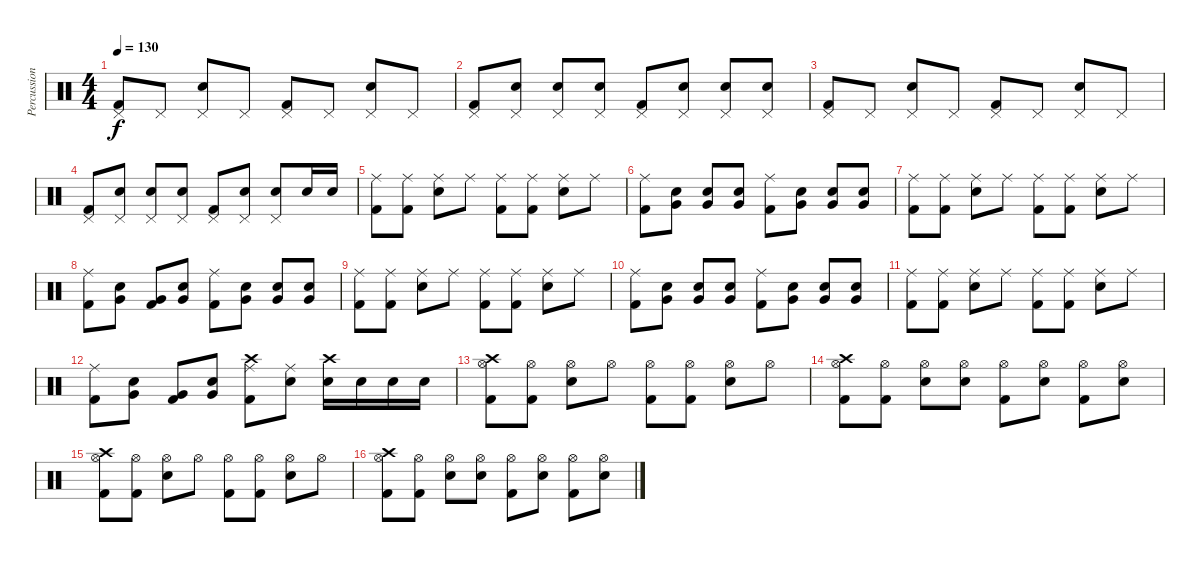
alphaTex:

\track ("Percussion" "Percussion") {instrument percussion}
\staff {score}
\articulation defaults
\ts (4 4)
\tempo 130
\clef neutral
\ks c
("Pedal Hi-Hat (hit)" "Kick (hit) 2").8{dy f} "Pedal Hi-Hat (hit)".8 ("Pedal Hi-Hat (hit)" "Snare (hit) 2").8 "Pedal Hi-Hat (hit)".8 ("Pedal Hi-Hat (hit)" "Kick (hit) 2").8 "Pedal Hi-Hat (hit)".8 ("Pedal Hi-Hat (hit)" "Snare (hit) 2").8 "Pedal Hi-Hat (hit)".8 |
("Pedal Hi-Hat (hit)" "Kick (hit) 2").8 ("Pedal Hi-Hat (hit)" "Snare (hit) 2").8 ("Pedal Hi-Hat (hit)" "Snare (hit) 2").8 ("Pedal Hi-Hat (hit)" "Snare (hit) 2").8 ("Pedal Hi-Hat (hit)" "Kick (hit) 2").8 ("Pedal Hi-Hat (hit)" "Snare (hit) 2").8 ("Pedal Hi-Hat (hit)" "Snare (hit) 2").8 ("Pedal Hi-Hat (hit)" "Snare (hit) 2").8 |
("Pedal Hi-Hat (hit)" "Kick (hit) 2").8 "Pedal Hi-Hat (hit)".8 ("Pedal Hi-Hat (hit)" "Snare (hit) 2").8 "Pedal Hi-Hat (hit)".8 ("Pedal Hi-Hat (hit)" "Kick (hit) 2").8 "Pedal Hi-Hat (hit)".8 ("Pedal Hi-Hat (hit)" "Snare (hit) 2").8 "Pedal Hi-Hat (hit)".8 |
("Pedal Hi-Hat (hit)" "Kick (hit) 2").8 ("Pedal Hi-Hat (hit)" "Snare (hit) 2").8 ("Pedal Hi-Hat (hit)" "Snare (hit) 2").8 ("Pedal Hi-Hat (hit)" "Snare (hit) 2").8 ("Pedal Hi-Hat (hit)" "Kick (hit) 2").8 ("Pedal Hi-Hat (hit)" "Snare (hit) 2").8 ("Pedal Hi-Hat (hit)" "Snare (hit) 2").8 "Snare (hit) 2".16 "Snare (hit) 2".16 |
("Ride (middle)" "Kick (hit) 2").8 ("Ride (middle)" "Kick (hit) 2").8 ("Ride (middle)" "Snare (hit) 2").8 "Ride (middle)".8 ("Ride (middle)" "Kick (hit) 2").8 ("Ride (middle)" "Kick (hit) 2").8 ("Ride (middle)" "Snare (hit) 2").8 "Ride (middle)".8 |
("Ride (middle)" "Kick (hit) 2").8 ("Very Low Tom (hit)" "Snare (hit) 2").8 ("Very Low Tom (hit)" "Snare (hit) 2").8 ("Very Low Tom (hit)" "Snare (hit) 2").8 ("Ride (middle)" "Kick (hit) 2").8 ("Very Low Tom (hit)" "Snare (hit) 2").8 ("Very Low Tom (hit)" "Snare (hit) 2").8 ("Very Low Tom (hit)" "Snare (hit) 2").8 |
("Ride (middle)" "Kick (hit) 2").8 ("Ride (middle)" "Kick (hit) 2").8 ("Ride (middle)" "Snare (hit) 2").8 "Ride (middle)".8 ("Ride (middle)" "Kick (hit) 2").8 ("Ride (middle)" "Kick (hit) 2").8 ("Ride (middle)" "Snare (hit) 2").8 "Ride (middle)".8 |
("Ride (middle)" "Kick (hit) 2").8 ("Very Low Tom (hit)" "Snare (hit) 2").8 ("Very Low Tom (hit)" "Kick (hit) 2").8 ("Very Low Tom (hit)" "Snare (hit) 2").8 ("Ride (middle)" "Kick (hit) 2").8 ("Very Low Tom (hit)" "Snare (hit) 2").8 ("Very Low Tom (hit)" "Snare (hit) 2").8 ("Very Low Tom (hit)" "Snare (hit) 2").8 |
("Ride (middle)" "Kick (hit) 2").8 ("Ride (middle)" "Kick (hit) 2").8 ("Ride (middle)" "Snare (hit) 2").8 "Ride (middle)".8 ("Ride (middle)" "Kick (hit) 2").8 ("Ride (middle)" "Kick (hit) 2").8 ("Ride (middle)" "Snare (hit) 2").8 "Ride (middle)".8 |
("Ride (middle)" "Kick (hit) 2").8 ("Very Low Tom (hit)" "Snare (hit) 2").8 ("Very Low Tom (hit)" "Snare (hit) 2").8 ("Very Low Tom (hit)" "Snare (hit) 2").8 ("Ride (middle)" "Kick (hit) 2").8 ("Very Low Tom (hit)" "Snare (hit) 2").8 ("Very Low Tom (hit)" "Snare (hit) 2").8 ("Very Low Tom (hit)" "Snare (hit) 2").8 |
("Ride (middle)" "Kick (hit) 2").8 ("Ride (middle)" "Kick (hit) 2").8 ("Ride (middle)" "Snare (hit) 2").8 "Ride (middle)".8 ("Ride (middle)" "Kick (hit) 2").8 ("Ride (middle)" "Kick (hit) 2").8 ("Ride (middle)" "Snare (hit) 2").8 "Ride (middle)".8 |
("Ride (middle)" "Kick (hit) 2").8 ("Very Low Tom (hit)" "Snare (hit) 2").8 ("Very Low Tom (hit)" "Kick (hit) 2").8 ("Very Low Tom (hit)" "Snare (hit) 2").8 ("Crash high (hit)" "Ride (middle)" "Kick (hit) 2").8 ("Ride (middle)" "Snare (hit) 2").8 ("Crash high (hit)" "Snare (hit) 2").16 "Snare (hit) 2".16 "Snare (hit) 2".16 "Snare (hit) 2".16 |
("Crash high (hit)" "Hi-Hat (open)" "Kick (hit) 2").8 ("Hi-Hat (open)" "Kick (hit) 2").8 ("Hi-Hat (open)" "Snare (hit) 2").8 "Hi-Hat (open)".8 ("Hi-Hat (open)" "Kick (hit) 2").8 ("Hi-Hat (open)" "Kick (hit) 2").8 ("Hi-Hat (open)" "Snare (hit) 2").8 "Hi-Hat (open)".8 |
("Crash high (hit)" "Hi-Hat (open)" "Kick (hit) 2").8 ("Hi-Hat (open)" "Kick (hit) 2").8 ("Hi-Hat (open)" "Snare (hit) 2").8 ("Hi-Hat (open)" "Snare (hit) 2").8 ("Hi-Hat (open)" "Kick (hit) 2").8 ("Hi-Hat (open)" "Snare (hit) 2").8 ("Hi-Hat (open)" "Kick (hit) 2").8 ("Hi-Hat (open)" "Snare (hit) 2").8 |
("Crash high (hit)" "Hi-Hat (open)" "Kick (hit) 2").8 ("Hi-Hat (open)" "Kick (hit) 2").8 ("Hi-Hat (open)" "Snare (hit) 2").8 "Hi-Hat (open)".8 ("Hi-Hat (open)" "Kick (hit) 2").8 ("Hi-Hat (open)" "Kick (hit) 2").8 ("Hi-Hat (open)" "Snare (hit) 2").8 "Hi-Hat (open)".8 |
("Crash high (hit)" "Hi-Hat (open)" "Kick (hit) 2").8 ("Hi-Hat (open)" "Kick (hit) 2").8 ("Hi-Hat (open)" "Snare (hit) 2").8 ("Hi-Hat (open)" "Snare (hit) 2").8 ("Hi-Hat (open)" "Kick (hit) 2").8 ("Hi-Hat (open)" "Snare (hit) 2").8 ("Hi-Hat (open)" "Kick (hit) 2").8 ("Hi-Hat (open)" "Snare (hit) 2").8
